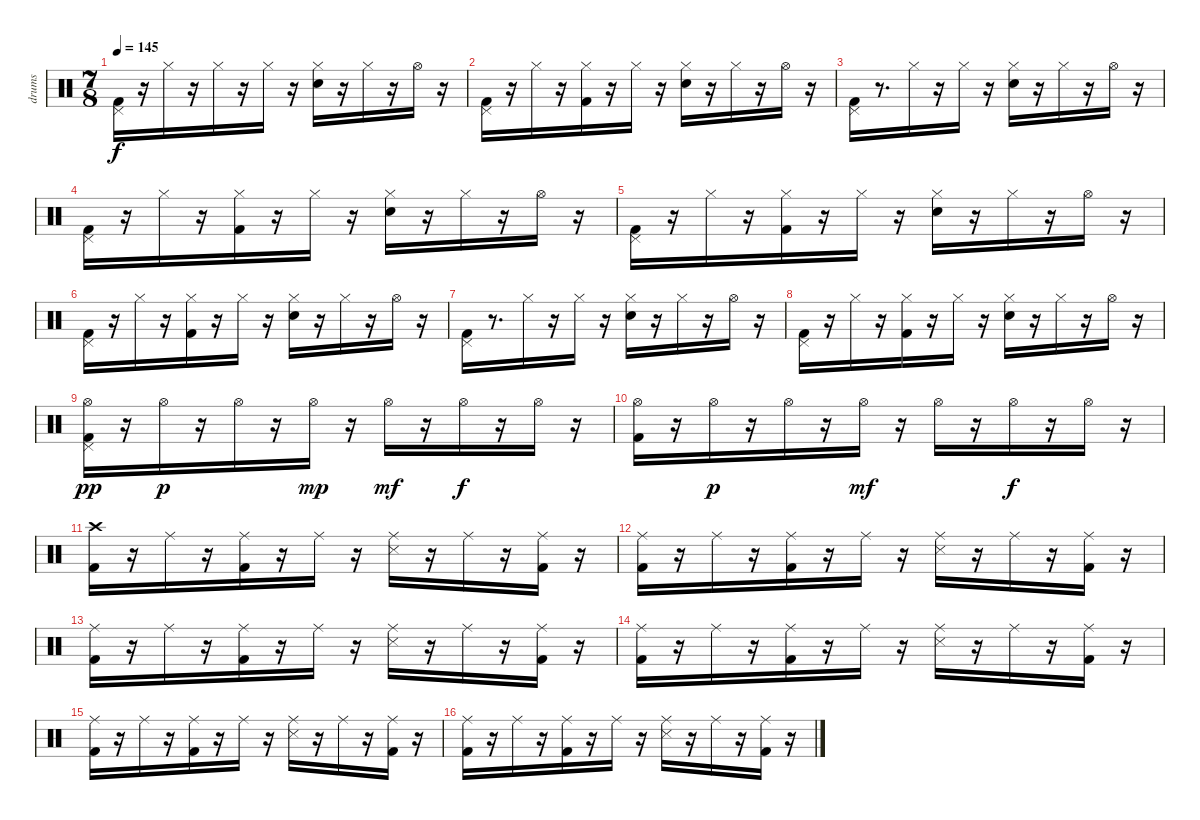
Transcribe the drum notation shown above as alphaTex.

\track ("drums" "drums") {instrument percussion}
\staff {score}
\articulation defaults
\ts (7 8)
\tempo 145
\clef neutral
\ks c
("Kick (hit) 2" "Pedal Hi-Hat (hit)").16{dy f} r.16 "Hi-Hat (closed)".16 r.16 "Hi-Hat (closed)".16 r.16 "Hi-Hat (closed)".16 r.16 ("Snare (hit) 2" "Hi-Hat (closed)").16 r.16 "Hi-Hat (closed)".16 r.16 "Hi-Hat (open)".16 r.16 |
("Kick (hit) 2" "Pedal Hi-Hat (hit)").16 r.16 "Hi-Hat (closed)".16 r.16 ("Kick (hit) 2" "Hi-Hat (closed)").16 r.16 "Hi-Hat (closed)".16 r.16 ("Snare (hit) 2" "Hi-Hat (closed)").16 r.16 "Hi-Hat (closed)".16 r.16 "Hi-Hat (open)".16 r.16 |
("Kick (hit) 2" "Pedal Hi-Hat (hit)").16 r.8{d} "Hi-Hat (closed)".16 r.16 "Hi-Hat (closed)".16 r.16 ("Snare (hit) 2" "Hi-Hat (closed)").16 r.16 "Hi-Hat (closed)".16 r.16 "Hi-Hat (open)".16 r.16 |
("Kick (hit) 2" "Pedal Hi-Hat (hit)").16 r.16 "Hi-Hat (closed)".16 r.16 ("Kick (hit) 2" "Hi-Hat (closed)").16 r.16 "Hi-Hat (closed)".16 r.16 ("Snare (hit) 2" "Hi-Hat (closed)").16 r.16 "Hi-Hat (closed)".16 r.16 "Hi-Hat (open)".16 r.16 |
("Kick (hit) 2" "Pedal Hi-Hat (hit)").16 r.16 "Hi-Hat (closed)".16 r.16 ("Kick (hit) 2" "Hi-Hat (closed)").16 r.16 "Hi-Hat (closed)".16 r.16 ("Snare (hit) 2" "Hi-Hat (closed)").16 r.16 "Hi-Hat (closed)".16 r.16 "Hi-Hat (open)".16 r.16 |
("Kick (hit) 2" "Pedal Hi-Hat (hit)").16 r.16 "Hi-Hat (closed)".16 r.16 ("Kick (hit) 2" "Hi-Hat (closed)").16 r.16 "Hi-Hat (closed)".16 r.16 ("Snare (hit) 2" "Hi-Hat (closed)").16 r.16 "Hi-Hat (closed)".16 r.16 "Hi-Hat (open)".16 r.16 |
("Kick (hit) 2" "Pedal Hi-Hat (hit)").16 r.8{d} "Hi-Hat (closed)".16 r.16 "Hi-Hat (closed)".16 r.16 ("Snare (hit) 2" "Hi-Hat (closed)").16 r.16 "Hi-Hat (closed)".16 r.16 "Hi-Hat (open)".16 r.16 |
("Kick (hit) 2" "Pedal Hi-Hat (hit)").16 r.16 "Hi-Hat (closed)".16 r.16 ("Kick (hit) 2" "Hi-Hat (closed)").16 r.16 "Hi-Hat (closed)".16 r.16 ("Snare (hit) 2" "Hi-Hat (closed)").16 r.16 "Hi-Hat (closed)".16 r.16 "Hi-Hat (open)".16 r.16 |
("Kick (hit) 2" "Pedal Hi-Hat (hit)" "Hi-Hat (open)").16{dy pp} r.16 "Hi-Hat (open)".16{dy p} r.16 "Hi-Hat (open)".16 r.16 "Hi-Hat (open)".16{dy mp} r.16 "Hi-Hat (open)".16{dy mf} r.16 "Hi-Hat (open)".16{dy f} r.16 "Hi-Hat (open)".16 r.16 |
("Kick (hit) 2" "Hi-Hat (open)").16 r.16 "Hi-Hat (open)".16{dy p} r.16 "Hi-Hat (open)".16 r.16 "Hi-Hat (open)".16{dy mf} r.16 "Hi-Hat (open)".16 r.16 "Hi-Hat (open)".16{dy f} r.16 "Hi-Hat (open)".16 r.16 |
("Kick (hit) 2" "Crash high (hit)").16 r.16 "Ride (middle)".16 r.16 ("Kick (hit) 2" "Ride (middle)").16 r.16 "Ride (middle)".16 r.16 ("Snare (side stick) 3" "Ride (middle)").16 r.16 "Ride (middle)".16 r.16 ("Kick (hit) 2" "Ride (middle)").16 r.16 |
("Kick (hit) 2" "Ride (middle)").16 r.16 "Ride (middle)".16 r.16 ("Kick (hit) 2" "Ride (middle)").16 r.16 "Ride (middle)".16 r.16 ("Snare (side stick) 3" "Ride (middle)").16 r.16 "Ride (middle)".16 r.16 ("Kick (hit) 2" "Ride (middle)").16 r.16 |
("Kick (hit) 2" "Ride (middle)").16 r.16 "Ride (middle)".16 r.16 ("Kick (hit) 2" "Ride (middle)").16 r.16 "Ride (middle)".16 r.16 ("Snare (side stick) 3" "Ride (middle)").16 r.16 "Ride (middle)".16 r.16 ("Kick (hit) 2" "Ride (middle)").16 r.16 |
("Kick (hit) 2" "Ride (middle)").16 r.16 "Ride (middle)".16 r.16 ("Kick (hit) 2" "Ride (middle)").16 r.16 "Ride (middle)".16 r.16 ("Snare (side stick) 3" "Ride (middle)").16 r.16 "Ride (middle)".16 r.16 ("Kick (hit) 2" "Ride (middle)").16 r.16 |
("Kick (hit) 2" "Ride (middle)").16 r.16 "Ride (middle)".16 r.16 ("Kick (hit) 2" "Ride (middle)").16 r.16 "Ride (middle)".16 r.16 ("Snare (side stick) 3" "Ride (middle)").16 r.16 "Ride (middle)".16 r.16 ("Kick (hit) 2" "Ride (middle)").16 r.16 |
("Kick (hit) 2" "Ride (middle)").16 r.16 "Ride (middle)".16 r.16 ("Kick (hit) 2" "Ride (middle)").16 r.16 "Ride (middle)".16 r.16 ("Snare (side stick) 3" "Ride (middle)").16 r.16 "Ride (middle)".16 r.16 ("Kick (hit) 2" "Ride (middle)").16 r.16
